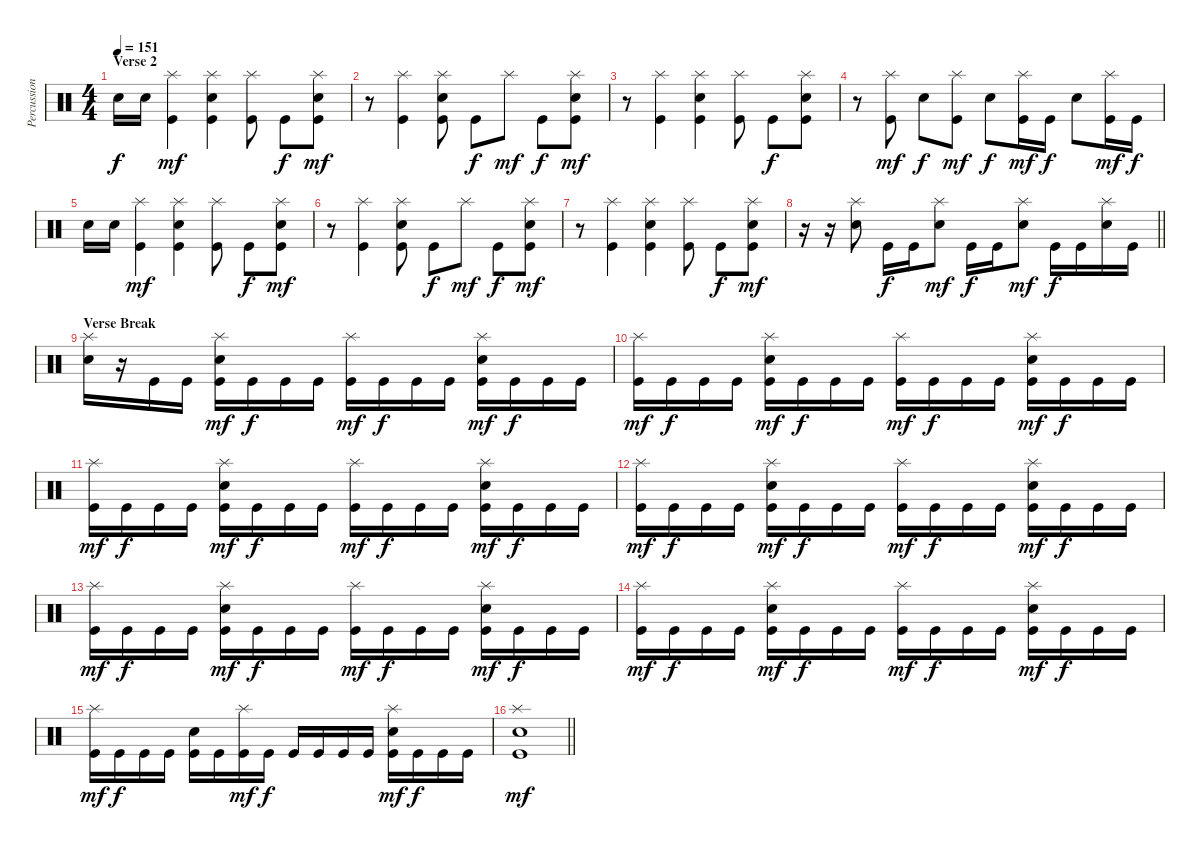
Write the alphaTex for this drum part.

\track ("Percussion" "Percussion") {instrument percussion}
\staff {score}
\articulation defaults
\ts (4 4)
\section ("" "Verse 2")
\tempo 151
\clef neutral
\ks c "Electric Snare (hit)".16{dy f} "Electric Snare (hit)".16
("Splash (hit)" "Kick (hit)").4{dy mf} ("Splash (hit)" "Snare (hit) 2" "Kick (hit)").4 ("Splash (hit)" "Kick (hit)").8 "Kick (hit)".8{dy f} ("Splash (hit)" "Snare (hit) 2" "Kick (hit)").8{dy mf} |
r.8 ("Splash (hit)" "Kick (hit)").4 ("Splash (hit)" "Snare (hit) 2" "Kick (hit)").8 "Kick (hit)".8{dy f} "Splash (hit)".8{dy mf} "Kick (hit)".8{dy f} ("Splash (hit)" "Snare (hit) 2" "Kick (hit)").8{dy mf} |
r.8 ("Splash (hit)" "Kick (hit)").4 ("Splash (hit)" "Snare (hit) 2" "Kick (hit)").4 ("Splash (hit)" "Kick (hit)").8 "Kick (hit)".8{dy f} ("Splash (hit)" "Snare (hit) 2" "Kick (hit)").8 |
r.8 ("Splash (hit)" "Kick (hit)").8{dy mf} "Snare (hit) 2".8{dy f} ("Splash (hit)" "Kick (hit)").8{dy mf} "Snare (hit) 2".8{dy f} ("Splash (hit)" "Kick (hit)").16{dy mf} "Kick (hit)".16{dy f} "Snare (hit) 2".8 ("Splash (hit)" "Kick (hit)").16{dy mf} "Kick (hit)".16{dy f} |
"Electric Snare (hit)".16 "Electric Snare (hit)".16 ("Splash (hit)" "Kick (hit)").4{dy mf} ("Splash (hit)" "Snare (hit) 2" "Kick (hit)").4 ("Splash (hit)" "Kick (hit)").8 "Kick (hit)".8{dy f} ("Splash (hit)" "Snare (hit) 2" "Kick (hit)").8{dy mf} |
r.8 ("Splash (hit)" "Kick (hit)").4 ("Splash (hit)" "Snare (hit) 2" "Kick (hit)").8 "Kick (hit)".8{dy f} "Splash (hit)".8{dy mf} "Kick (hit)".8{dy f} ("Splash (hit)" "Snare (hit) 2" "Kick (hit)").8{dy mf} |
r.8 ("Splash (hit)" "Kick (hit)").4 ("Splash (hit)" "Snare (hit) 2" "Kick (hit)").4 ("Splash (hit)" "Kick (hit)").8 "Kick (hit)".8{dy f} ("Splash (hit)" "Snare (hit) 2" "Kick (hit)").8{dy mf} |
\barLineRight lightlight
r.16 r.16 ("Splash (hit)" "Snare (hit) 2").8 "Kick (hit)".16{dy f} "Kick (hit)".16 ("Splash (hit)" "Snare (hit) 2").8{dy mf} "Kick (hit)".16{dy f} "Kick (hit)".16 ("Splash (hit)" "Snare (hit) 2").8{dy mf} "Kick (hit)".16{dy f} "Kick (hit)".16 ("Splash (hit)" "Snare (hit) 2").16 "Kick (hit)".16 |
\section ("" "Verse Break")
("Splash (hit)" "Snare (hit) 2").16 r.16 "Kick (hit)".16 "Kick (hit)".16 ("Splash (hit)" "Snare (hit) 2" "Kick (hit)").16{dy mf} "Kick (hit)".16{dy f} "Kick (hit)".16 "Kick (hit)".16 ("Splash (hit)" "Kick (hit)").16{dy mf} "Kick (hit)".16{dy f} "Kick (hit)".16 "Kick (hit)".16 ("Splash (hit)" "Snare (hit) 2" "Kick (hit)").16{dy mf} "Kick (hit)".16{dy f} "Kick (hit)".16 "Kick (hit)".16 |
("Splash (hit)" "Kick (hit)").16{dy mf} "Kick (hit)".16{dy f} "Kick (hit)".16 "Kick (hit)".16 ("Splash (hit)" "Snare (hit) 2" "Kick (hit)").16{dy mf} "Kick (hit)".16{dy f} "Kick (hit)".16 "Kick (hit)".16 ("Splash (hit)" "Kick (hit)").16{dy mf} "Kick (hit)".16{dy f} "Kick (hit)".16 "Kick (hit)".16 ("Splash (hit)" "Snare (hit) 2" "Kick (hit)").16{dy mf} "Kick (hit)".16{dy f} "Kick (hit)".16 "Kick (hit)".16 |
("Splash (hit)" "Kick (hit)").16{dy mf} "Kick (hit)".16{dy f} "Kick (hit)".16 "Kick (hit)".16 ("Splash (hit)" "Snare (hit) 2" "Kick (hit)").16{dy mf} "Kick (hit)".16{dy f} "Kick (hit)".16 "Kick (hit)".16 ("Splash (hit)" "Kick (hit)").16{dy mf} "Kick (hit)".16{dy f} "Kick (hit)".16 "Kick (hit)".16 ("Splash (hit)" "Snare (hit) 2" "Kick (hit)").16{dy mf} "Kick (hit)".16{dy f} "Kick (hit)".16 "Kick (hit)".16 |
("Splash (hit)" "Kick (hit)").16{dy mf} "Kick (hit)".16{dy f} "Kick (hit)".16 "Kick (hit)".16 ("Splash (hit)" "Snare (hit) 2" "Kick (hit)").16{dy mf} "Kick (hit)".16{dy f} "Kick (hit)".16 "Kick (hit)".16 ("Splash (hit)" "Kick (hit)").16{dy mf} "Kick (hit)".16{dy f} "Kick (hit)".16 "Kick (hit)".16 ("Splash (hit)" "Snare (hit) 2" "Kick (hit)").16{dy mf} "Kick (hit)".16{dy f} "Kick (hit)".16 "Kick (hit)".16 |
("Splash (hit)" "Kick (hit)").16{dy mf} "Kick (hit)".16{dy f} "Kick (hit)".16 "Kick (hit)".16 ("Splash (hit)" "Snare (hit) 2" "Kick (hit)").16{dy mf} "Kick (hit)".16{dy f} "Kick (hit)".16 "Kick (hit)".16 ("Splash (hit)" "Kick (hit)").16{dy mf} "Kick (hit)".16{dy f} "Kick (hit)".16 "Kick (hit)".16 ("Splash (hit)" "Snare (hit) 2" "Kick (hit)").16{dy mf} "Kick (hit)".16{dy f} "Kick (hit)".16 "Kick (hit)".16 |
("Splash (hit)" "Kick (hit)").16{dy mf} "Kick (hit)".16{dy f} "Kick (hit)".16 "Kick (hit)".16 ("Splash (hit)" "Snare (hit) 2" "Kick (hit)").16{dy mf} "Kick (hit)".16{dy f} "Kick (hit)".16 "Kick (hit)".16 ("Splash (hit)" "Kick (hit)").16{dy mf} "Kick (hit)".16{dy f} "Kick (hit)".16 "Kick (hit)".16 ("Splash (hit)" "Snare (hit) 2" "Kick (hit)").16{dy mf} "Kick (hit)".16{dy f} "Kick (hit)".16 "Kick (hit)".16 |
("Splash (hit)" "Kick (hit)").16{dy mf} "Kick (hit)".16{dy f} "Kick (hit)".16 "Kick (hit)".16 ("Snare (hit) 2" "Kick (hit)").16 "Kick (hit)".16 ("Splash (hit)" "Kick (hit)").16{dy mf} "Kick (hit)".16{dy f} "Kick (hit)".16 "Kick (hit)".16 "Kick (hit)".16 "Kick (hit)".16 ("Splash (hit)" "Snare (hit) 2" "Kick (hit)").16{dy mf} "Kick (hit)".16{dy f} "Kick (hit)".16 "Kick (hit)".16 |
\barLineRight lightlight
("Splash (hit)" "Snare (hit) 2" "Kick (hit)").1{dy mf}
